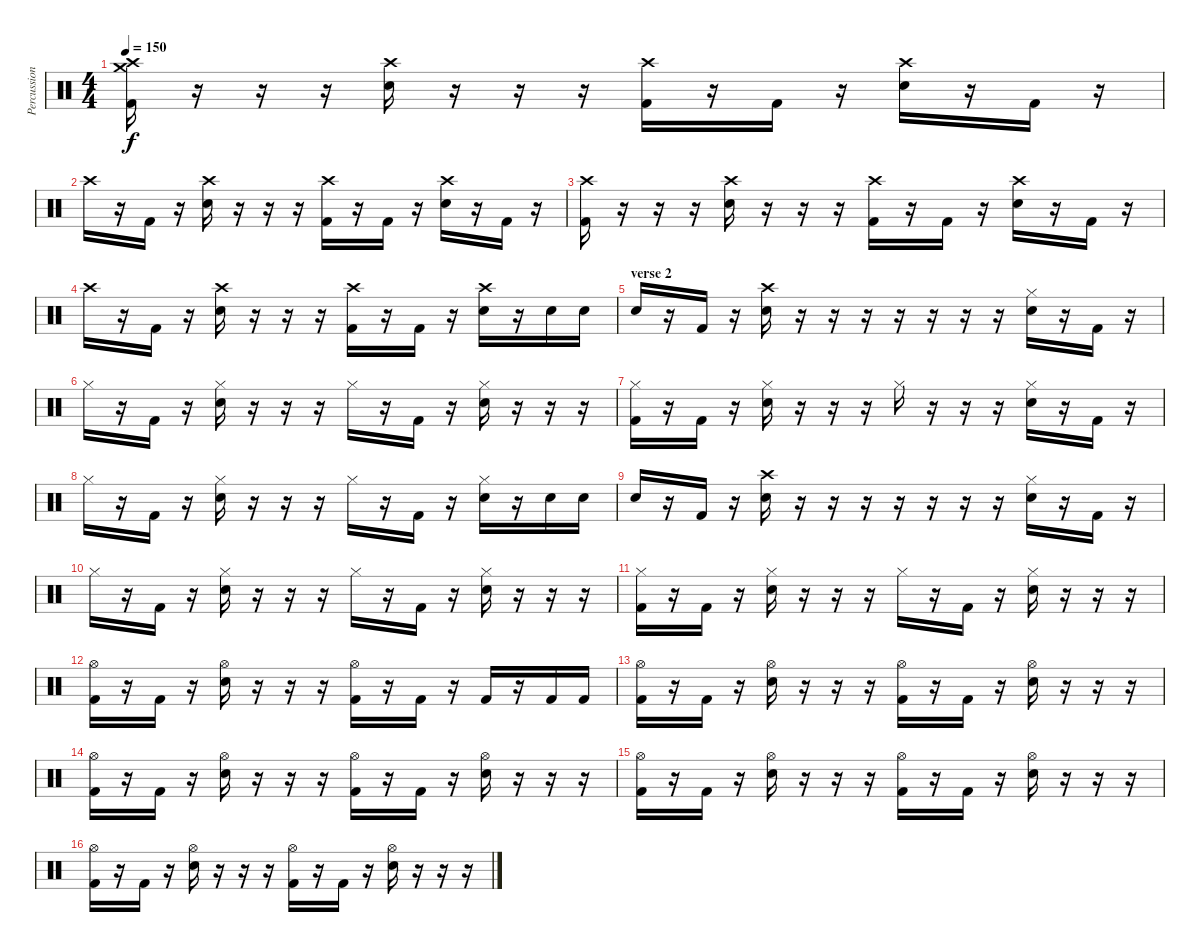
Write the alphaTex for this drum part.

\track ("Percussion" "Percussion") {instrument percussion}
\staff {score}
\articulation defaults
\ts (4 4)
\tempo 150
\clef neutral
\ks c
("Crash high (hit)" "Crash medium (hit)" "Kick (hit) 2").16{dy f} r.16 r.16 r.16 ("Crash high (hit)" "Electric Snare (hit)").16 r.16 r.16 r.16 ("Crash high (hit)" "Kick (hit) 2").16 r.16 "Kick (hit) 2".16 r.16 ("Crash high (hit)" "Electric Snare (hit)").16 r.16 "Kick (hit) 2".16 r.16 |
"Crash high (hit)".16 r.16 "Kick (hit) 2".16 r.16 ("Crash high (hit)" "Electric Snare (hit)").16 r.16 r.16 r.16 ("Crash high (hit)" "Kick (hit) 2").16 r.16 "Kick (hit) 2".16 r.16 ("Crash high (hit)" "Electric Snare (hit)").16 r.16 "Kick (hit) 2".16 r.16 |
("Crash high (hit)" "Kick (hit) 2").16 r.16 r.16 r.16 ("Crash high (hit)" "Electric Snare (hit)").16 r.16 r.16 r.16 ("Crash high (hit)" "Kick (hit) 2").16 r.16 "Kick (hit) 2".16 r.16 ("Crash high (hit)" "Electric Snare (hit)").16 r.16 "Kick (hit) 2".16 r.16 |
"Crash high (hit)".16 r.16 "Kick (hit) 2".16 r.16 ("Crash high (hit)" "Electric Snare (hit)").16 r.16 r.16 r.16 ("Crash high (hit)" "Kick (hit) 2").16 r.16 "Kick (hit) 2".16 r.16 ("Crash high (hit)" "Electric Snare (hit)").16 r.16 "Electric Snare (hit)".16 "Electric Snare (hit)".16 |
\section ("" "verse 2")
"Electric Snare (hit)".16 r.16 "Kick (hit) 2".16 r.16 ("Crash high (hit)" "Electric Snare (hit)").16 r.16 r.16 r.16 r.16 r.16 r.16 r.16 ("Hi-Hat (closed)" "Electric Snare (hit)").16 r.16 "Kick (hit) 2".16 r.16 |
"Hi-Hat (closed)".16 r.16 "Kick (hit) 2".16 r.16 ("Hi-Hat (closed)" "Electric Snare (hit)").16 r.16 r.16 r.16 "Hi-Hat (closed)".16 r.16 "Kick (hit) 2".16 r.16 ("Hi-Hat (closed)" "Electric Snare (hit)").16 r.16 r.16 r.16 |
("Hi-Hat (closed)" "Kick (hit) 2").16 r.16 "Kick (hit) 2".16 r.16 ("Hi-Hat (closed)" "Electric Snare (hit)").16 r.16 r.16 r.16 "Hi-Hat (closed)".16 r.16 r.16 r.16 ("Hi-Hat (closed)" "Electric Snare (hit)").16 r.16 "Kick (hit) 2".16 r.16 |
"Hi-Hat (closed)".16 r.16 "Kick (hit) 2".16 r.16 ("Hi-Hat (closed)" "Electric Snare (hit)").16 r.16 r.16 r.16 "Hi-Hat (closed)".16 r.16 "Kick (hit) 2".16 r.16 ("Hi-Hat (closed)" "Electric Snare (hit)").16 r.16 "Electric Snare (hit)".16 "Electric Snare (hit)".16 |
"Electric Snare (hit)".16 r.16 "Kick (hit) 2".16 r.16 ("Crash high (hit)" "Electric Snare (hit)").16 r.16 r.16 r.16 r.16 r.16 r.16 r.16 ("Hi-Hat (closed)" "Electric Snare (hit)").16 r.16 "Kick (hit) 2".16 r.16 |
"Hi-Hat (closed)".16 r.16 "Kick (hit) 2".16 r.16 ("Hi-Hat (closed)" "Electric Snare (hit)").16 r.16 r.16 r.16 "Hi-Hat (closed)".16 r.16 "Kick (hit) 2".16 r.16 ("Hi-Hat (closed)" "Electric Snare (hit)").16 r.16 r.16 r.16 |
("Hi-Hat (closed)" "Kick (hit) 2").16 r.16 "Kick (hit) 2".16 r.16 ("Hi-Hat (closed)" "Electric Snare (hit)").16 r.16 r.16 r.16 "Hi-Hat (closed)".16 r.16 "Kick (hit) 2".16 r.16 ("Hi-Hat (closed)" "Electric Snare (hit)").16 r.16 r.16 r.16 |
("Hi-Hat (open)" "Kick (hit) 2").16 r.16 "Kick (hit) 2".16 r.16 ("Hi-Hat (open)" "Electric Snare (hit)").16 r.16 r.16 r.16 ("Hi-Hat (open)" "Kick (hit) 2").16 r.16 "Kick (hit) 2".16 r.16 "Kick (hit) 2".16 r.16 "Kick (hit) 2".16 "Kick (hit) 2".16 |
("Hi-Hat (open)" "Kick (hit) 2").16 r.16 "Kick (hit) 2".16 r.16 ("Hi-Hat (open)" "Electric Snare (hit)").16 r.16 r.16 r.16 ("Hi-Hat (open)" "Kick (hit) 2").16 r.16 "Kick (hit) 2".16 r.16 ("Hi-Hat (open)" "Electric Snare (hit)").16 r.16 r.16 r.16 |
("Hi-Hat (open)" "Kick (hit) 2").16 r.16 "Kick (hit) 2".16 r.16 ("Hi-Hat (open)" "Electric Snare (hit)").16 r.16 r.16 r.16 ("Hi-Hat (open)" "Kick (hit) 2").16 r.16 "Kick (hit) 2".16 r.16 ("Hi-Hat (open)" "Electric Snare (hit)").16 r.16 r.16 r.16 |
("Hi-Hat (open)" "Kick (hit) 2").16 r.16 "Kick (hit) 2".16 r.16 ("Hi-Hat (open)" "Electric Snare (hit)").16 r.16 r.16 r.16 ("Hi-Hat (open)" "Kick (hit) 2").16 r.16 "Kick (hit) 2".16 r.16 ("Hi-Hat (open)" "Electric Snare (hit)").16 r.16 r.16 r.16 |
("Hi-Hat (open)" "Kick (hit) 2").16 r.16 "Kick (hit) 2".16 r.16 ("Hi-Hat (open)" "Electric Snare (hit)").16 r.16 r.16 r.16 ("Hi-Hat (open)" "Kick (hit) 2").16 r.16 "Kick (hit) 2".16 r.16 ("Hi-Hat (open)" "Electric Snare (hit)").16 r.16 r.16 r.16
